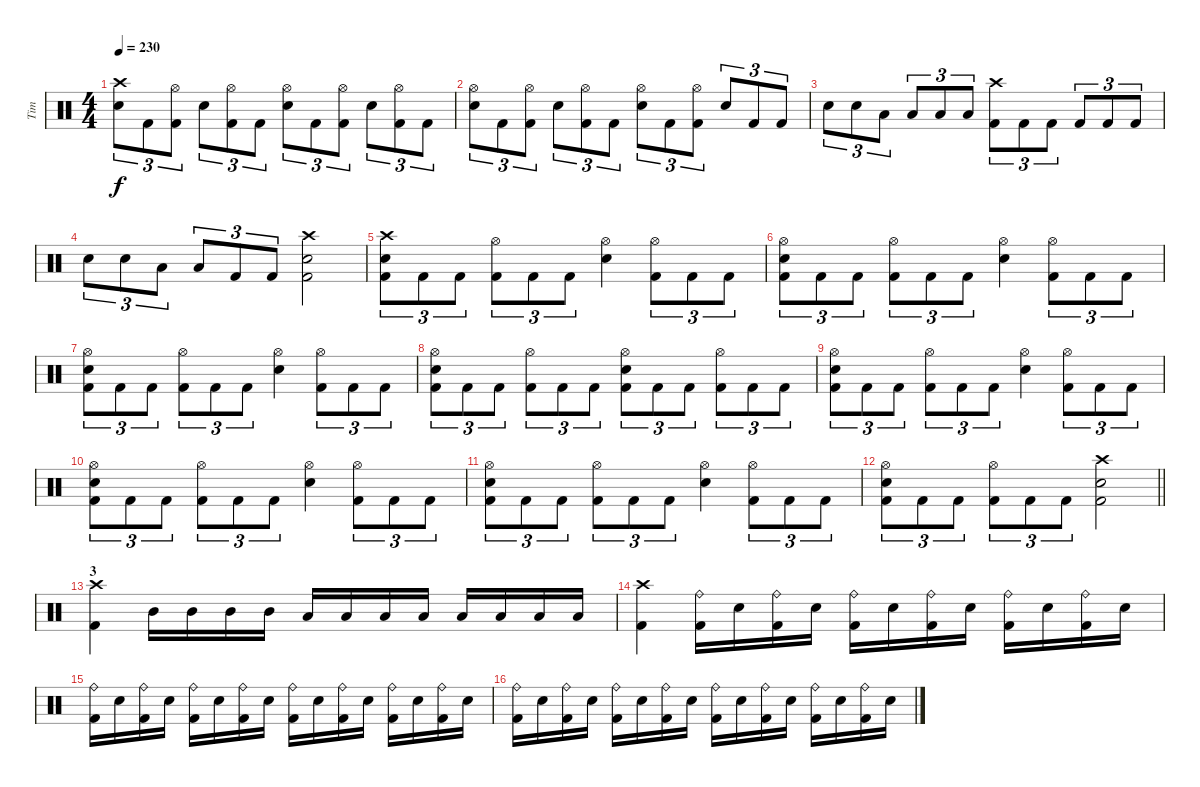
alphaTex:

\track ("Tim" "Tim") {instrument percussion}
\staff {score}
\articulation defaults
\ts (4 4)
\tempo 230
\clef neutral
\ks c
("Crash high (hit)" "Snare (hit) 2").8{tu (3 2) dy f} "Kick (hit) 2".8{tu (3 2)} ("Hi-Hat (open)" "Kick (hit) 2").8{tu (3 2)} "Snare (hit) 2".8{tu (3 2)} ("Hi-Hat (open)" "Kick (hit) 2").8{tu (3 2)} "Kick (hit) 2".8{tu (3 2)} ("Hi-Hat (open)" "Snare (hit) 2").8{tu (3 2)} "Kick (hit) 2".8{tu (3 2)} ("Hi-Hat (open)" "Kick (hit) 2").8{tu (3 2)} "Snare (hit) 2".8{tu (3 2)} ("Hi-Hat (open)" "Kick (hit) 2").8{tu (3 2)} "Kick (hit) 2".8{tu (3 2)} |
("Hi-Hat (open)" "Snare (hit) 2").8{tu (3 2)} "Kick (hit) 2".8{tu (3 2)} ("Hi-Hat (open)" "Kick (hit) 2").8{tu (3 2)} "Snare (hit) 2".8{tu (3 2)} ("Hi-Hat (open)" "Kick (hit) 2").8{tu (3 2)} "Kick (hit) 2".8{tu (3 2)} ("Hi-Hat (open)" "Snare (hit) 2").8{tu (3 2)} "Kick (hit) 2".8{tu (3 2)} ("Hi-Hat (open)" "Kick (hit) 2").8{tu (3 2)} "Snare (hit) 2".8{tu (3 2)} "Kick (hit) 2".8{tu (3 2)} "Kick (hit) 2".8{tu (3 2)} |
"Snare (hit) 2".8{tu (3 2)} "Snare (hit) 2".8{tu (3 2)} "Low Tom (hit)".8{tu (3 2)} "Low Tom (hit)".8{tu (3 2)} "Low Floor Tom (hit)".8{tu (3 2)} "Low Floor Tom (hit)".8{tu (3 2)} ("Crash high (hit)" "Kick (hit) 2").8{tu (3 2)} "Kick (hit) 2".8{tu (3 2)} "Kick (hit) 2".8{tu (3 2)} "Kick (hit) 2".8{tu (3 2)} "Kick (hit) 2".8{tu (3 2)} "Kick (hit) 2".8{tu (3 2)} |
"Snare (hit) 2".8{tu (3 2)} "Snare (hit) 2".8{tu (3 2)} "Low Floor Tom (hit)".8{tu (3 2)} "Low Floor Tom (hit)".8{tu (3 2)} "Kick (hit) 2".8{tu (3 2)} "Kick (hit) 2".8{tu (3 2)} ("Crash high (hit)" "Snare (hit) 2" "Kick (hit) 2").2 |
("Crash high (hit)" "Snare (hit) 2" "Kick (hit) 2").8{tu (3 2)} "Kick (hit) 2".8{tu (3 2)} "Kick (hit) 2".8{tu (3 2)} ("Hi-Hat (open)" "Kick (hit) 2").8{tu (3 2)} "Kick (hit) 2".8{tu (3 2)} "Kick (hit) 2".8{tu (3 2)} ("Hi-Hat (open)" "Snare (hit) 2").4 ("Hi-Hat (open)" "Kick (hit) 2").8{tu (3 2)} "Kick (hit) 2".8{tu (3 2)} "Kick (hit) 2".8{tu (3 2)} |
("Hi-Hat (open)" "Snare (hit) 2" "Kick (hit) 2").8{tu (3 2)} "Kick (hit) 2".8{tu (3 2)} "Kick (hit) 2".8{tu (3 2)} ("Hi-Hat (open)" "Kick (hit) 2").8{tu (3 2)} "Kick (hit) 2".8{tu (3 2)} "Kick (hit) 2".8{tu (3 2)} ("Hi-Hat (open)" "Snare (hit) 2").4 ("Hi-Hat (open)" "Kick (hit) 2").8{tu (3 2)} "Kick (hit) 2".8{tu (3 2)} "Kick (hit) 2".8{tu (3 2)} |
("Hi-Hat (open)" "Snare (hit) 2" "Kick (hit) 2").8{tu (3 2)} "Kick (hit) 2".8{tu (3 2)} "Kick (hit) 2".8{tu (3 2)} ("Hi-Hat (open)" "Kick (hit) 2").8{tu (3 2)} "Kick (hit) 2".8{tu (3 2)} "Kick (hit) 2".8{tu (3 2)} ("Hi-Hat (open)" "Snare (hit) 2").4 ("Hi-Hat (open)" "Kick (hit) 2").8{tu (3 2)} "Kick (hit) 2".8{tu (3 2)} "Kick (hit) 2".8{tu (3 2)} |
("Hi-Hat (open)" "Snare (hit) 2" "Kick (hit) 2").8{tu (3 2)} "Kick (hit) 2".8{tu (3 2)} "Kick (hit) 2".8{tu (3 2)} ("Hi-Hat (open)" "Kick (hit) 2").8{tu (3 2)} "Kick (hit) 2".8{tu (3 2)} "Kick (hit) 2".8{tu (3 2)} ("Kick (hit) 2" "Hi-Hat (open)" "Snare (hit) 2").8{tu (3 2)} "Kick (hit) 2".8{tu (3 2)} "Kick (hit) 2".8{tu (3 2)} ("Hi-Hat (open)" "Kick (hit) 2").8{tu (3 2)} "Kick (hit) 2".8{tu (3 2)} "Kick (hit) 2".8{tu (3 2)} |
("Hi-Hat (open)" "Snare (hit) 2" "Kick (hit) 2").8{tu (3 2)} "Kick (hit) 2".8{tu (3 2)} "Kick (hit) 2".8{tu (3 2)} ("Hi-Hat (open)" "Kick (hit) 2").8{tu (3 2)} "Kick (hit) 2".8{tu (3 2)} "Kick (hit) 2".8{tu (3 2)} ("Hi-Hat (open)" "Snare (hit) 2").4 ("Hi-Hat (open)" "Kick (hit) 2").8{tu (3 2)} "Kick (hit) 2".8{tu (3 2)} "Kick (hit) 2".8{tu (3 2)} |
("Hi-Hat (open)" "Snare (hit) 2" "Kick (hit) 2").8{tu (3 2)} "Kick (hit) 2".8{tu (3 2)} "Kick (hit) 2".8{tu (3 2)} ("Hi-Hat (open)" "Kick (hit) 2").8{tu (3 2)} "Kick (hit) 2".8{tu (3 2)} "Kick (hit) 2".8{tu (3 2)} ("Hi-Hat (open)" "Snare (hit) 2").4 ("Hi-Hat (open)" "Kick (hit) 2").8{tu (3 2)} "Kick (hit) 2".8{tu (3 2)} "Kick (hit) 2".8{tu (3 2)} |
("Hi-Hat (open)" "Snare (hit) 2" "Kick (hit) 2").8{tu (3 2)} "Kick (hit) 2".8{tu (3 2)} "Kick (hit) 2".8{tu (3 2)} ("Hi-Hat (open)" "Kick (hit) 2").8{tu (3 2)} "Kick (hit) 2".8{tu (3 2)} "Kick (hit) 2".8{tu (3 2)} ("Hi-Hat (open)" "Snare (hit) 2").4 ("Hi-Hat (open)" "Kick (hit) 2").8{tu (3 2)} "Kick (hit) 2".8{tu (3 2)} "Kick (hit) 2".8{tu (3 2)} |
\barLineRight lightlight
("Hi-Hat (open)" "Snare (hit) 2" "Kick (hit) 2").8{tu (3 2)} "Kick (hit) 2".8{tu (3 2)} "Kick (hit) 2".8{tu (3 2)} ("Hi-Hat (open)" "Kick (hit) 2").8{tu (3 2)} "Kick (hit) 2".8{tu (3 2)} "Kick (hit) 2".8{tu (3 2)} ("Kick (hit) 2" "Crash high (hit)" "Snare (hit) 2").2 |
\section ("" "3")
("Crash high (hit)" "Kick (hit) 2").4 "Mid Tom (hit)".16 "Mid Tom (hit)".16 "Mid Tom (hit)".16 "Mid Tom (hit)".16 "Low Tom (hit)".16 "Low Tom (hit)".16 "Low Tom (hit)".16 "Low Tom (hit)".16 "Low Floor Tom (hit)".16 "Low Floor Tom (hit)".16 "Low Floor Tom (hit)".16 "Low Floor Tom (hit)".16 |
("Crash high (hit)" "Kick (hit) 2").4 ("Ride (bell)" "Kick (hit) 2").16 "Snare (hit) 2".16 ("Ride (bell)" "Kick (hit) 2").16 "Snare (hit) 2".16 ("Ride (bell)" "Kick (hit) 2").16 "Snare (hit) 2".16 ("Ride (bell)" "Kick (hit) 2").16 "Snare (hit) 2".16 ("Ride (bell)" "Kick (hit) 2").16 "Snare (hit) 2".16 ("Ride (bell)" "Kick (hit) 2").16 "Snare (hit) 2".16 |
("Ride (bell)" "Kick (hit) 2").16 "Snare (hit) 2".16 ("Ride (bell)" "Kick (hit) 2").16 "Snare (hit) 2".16 ("Ride (bell)" "Kick (hit) 2").16 "Snare (hit) 2".16 ("Ride (bell)" "Kick (hit) 2").16 "Snare (hit) 2".16 ("Ride (bell)" "Kick (hit) 2").16 "Snare (hit) 2".16 ("Ride (bell)" "Kick (hit) 2").16 "Snare (hit) 2".16 ("Ride (bell)" "Kick (hit) 2").16 "Snare (hit) 2".16 ("Ride (bell)" "Kick (hit) 2").16 "Snare (hit) 2".16 |
("Ride (bell)" "Kick (hit) 2").16 "Snare (hit) 2".16 ("Ride (bell)" "Kick (hit) 2").16 "Snare (hit) 2".16 ("Ride (bell)" "Kick (hit) 2").16 "Snare (hit) 2".16 ("Ride (bell)" "Kick (hit) 2").16 "Snare (hit) 2".16 ("Ride (bell)" "Kick (hit) 2").16 "Snare (hit) 2".16 ("Ride (bell)" "Kick (hit) 2").16 "Snare (hit) 2".16 ("Ride (bell)" "Kick (hit) 2").16 "Snare (hit) 2".16 ("Ride (bell)" "Kick (hit) 2").16 "Snare (hit) 2".16
